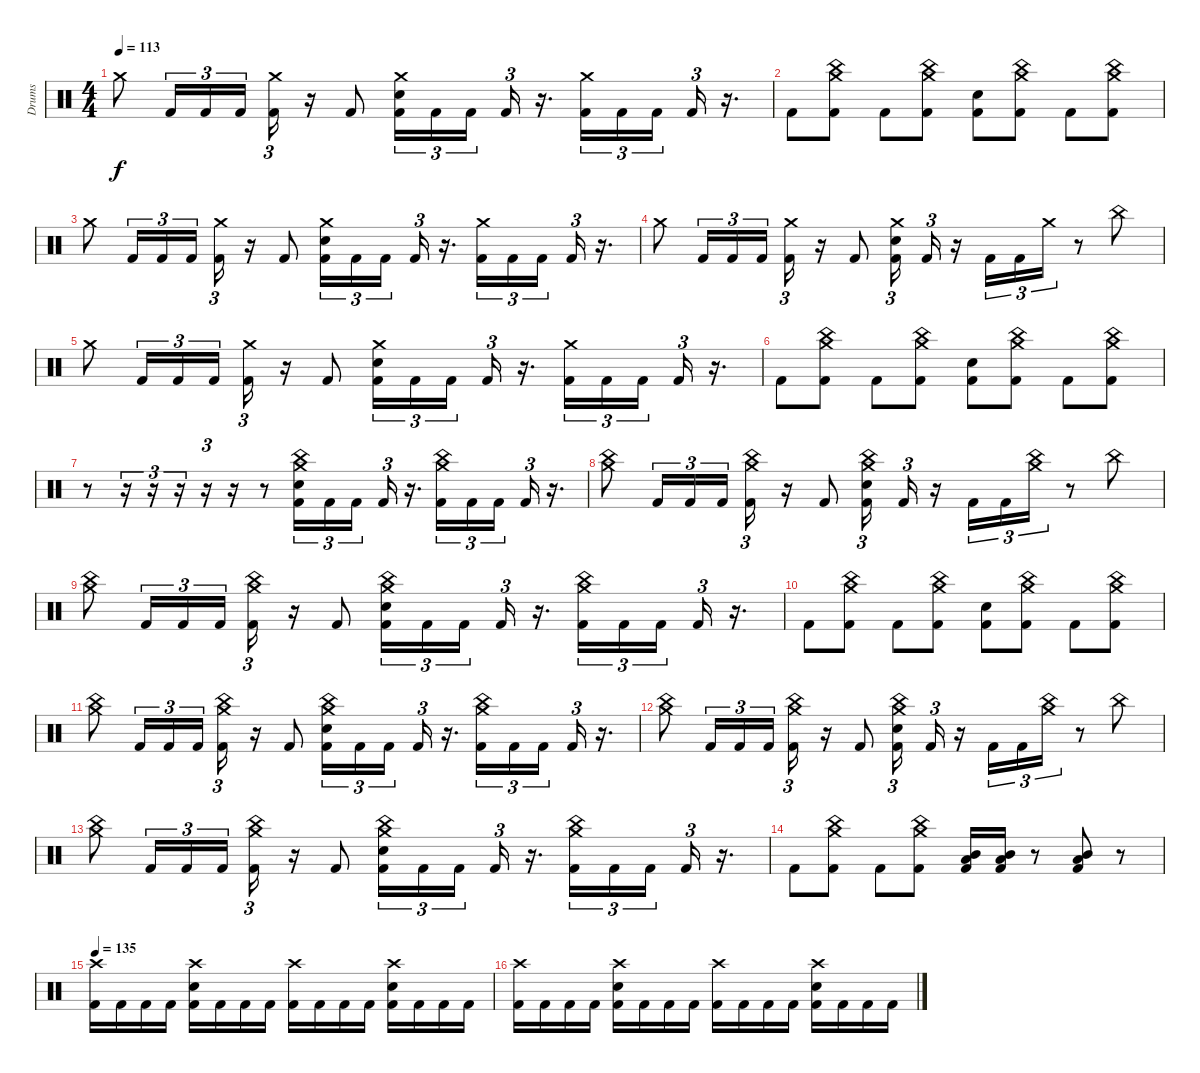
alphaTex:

\track ("Drums" "Drums") {instrument percussion}
\staff {score}
\articulation defaults
\ts (4 4)
\tempo 113
\clef neutral
\ks c "Crash medium (hit)".8{dy f} "Kick (hit) 2".16{tu (3 2)} "Kick (hit) 2".16{tu (3 2)} "Kick (hit) 2".16{tu (3 2)}
("Crash medium (hit)" "Kick (hit) 2").16{tu (3 2)} r.16 "Kick (hit) 2".8 ("Crash medium (hit)" "Snare (hit) 2" "Kick (hit) 2").16{tu (3 2)} "Kick (hit) 2".16{tu (3 2)} "Kick (hit) 2".16{tu (3 2) beam splitsecondary} "Kick (hit) 2".16{tu (3 2)} r.16{d} ("Crash medium (hit)" "Kick (hit) 2").16{tu (3 2)} "Kick (hit) 2".16{tu (3 2)} "Kick (hit) 2".16{tu (3 2) beam splitsecondary} "Kick (hit) 2".16{tu (3 2)} r.16{d} |
"Kick (hit) 2".8 ("China (hit)" "Crash medium (hit)" "Kick (hit) 2").8 "Kick (hit) 2".8 ("China (hit)" "Crash medium (hit)" "Kick (hit) 2").8 ("Snare (hit) 2" "Kick (hit) 2").8 ("China (hit)" "Crash medium (hit)" "Kick (hit) 2").8 "Kick (hit) 2".8 ("China (hit)" "Crash medium (hit)" "Kick (hit) 2").8 |
"Crash medium (hit)".8 "Kick (hit) 2".16{tu (3 2)} "Kick (hit) 2".16{tu (3 2)} "Kick (hit) 2".16{tu (3 2)} ("Crash medium (hit)" "Kick (hit) 2").16{tu (3 2)} r.16 "Kick (hit) 2".8 ("Crash medium (hit)" "Snare (hit) 2" "Kick (hit) 2").16{tu (3 2)} "Kick (hit) 2".16{tu (3 2)} "Kick (hit) 2".16{tu (3 2) beam splitsecondary} "Kick (hit) 2".16{tu (3 2)} r.16{d} ("Crash medium (hit)" "Kick (hit) 2").16{tu (3 2)} "Kick (hit) 2".16{tu (3 2)} "Kick (hit) 2".16{tu (3 2) beam splitsecondary} "Kick (hit) 2".16{tu (3 2)} r.16{d} |
"Crash medium (hit)".8 "Kick (hit) 2".16{tu (3 2)} "Kick (hit) 2".16{tu (3 2)} "Kick (hit) 2".16{tu (3 2)} ("Crash medium (hit)" "Kick (hit) 2").16{tu (3 2)} r.16 "Kick (hit) 2".8 ("Crash medium (hit)" "Snare (hit) 2" "Kick (hit) 2").16{tu (3 2)} "Kick (hit) 2".16{tu (3 2)} r.16 "Kick (hit) 2".16{tu (3 2)} "Kick (hit) 2".16{tu (3 2)} "Crash medium (hit)".16{tu (3 2)} r.8 "China (hit)".8 |
"Crash medium (hit)".8 "Kick (hit) 2".16{tu (3 2)} "Kick (hit) 2".16{tu (3 2)} "Kick (hit) 2".16{tu (3 2)} ("Crash medium (hit)" "Kick (hit) 2").16{tu (3 2)} r.16 "Kick (hit) 2".8 ("Crash medium (hit)" "Snare (hit) 2" "Kick (hit) 2").16{tu (3 2)} "Kick (hit) 2".16{tu (3 2)} "Kick (hit) 2".16{tu (3 2) beam splitsecondary} "Kick (hit) 2".16{tu (3 2)} r.16{d} ("Crash medium (hit)" "Kick (hit) 2").16{tu (3 2)} "Kick (hit) 2".16{tu (3 2)} "Kick (hit) 2".16{tu (3 2) beam splitsecondary} "Kick (hit) 2".16{tu (3 2)} r.16{d} |
"Kick (hit) 2".8 ("China (hit)" "Crash medium (hit)" "Kick (hit) 2").8 "Kick (hit) 2".8 ("China (hit)" "Crash medium (hit)" "Kick (hit) 2").8 ("Snare (hit) 2" "Kick (hit) 2").8 ("China (hit)" "Crash medium (hit)" "Kick (hit) 2").8 "Kick (hit) 2".8 ("China (hit)" "Crash medium (hit)" "Kick (hit) 2").8 |
r.8 r.16{tu (3 2)} r.16{tu (3 2)} r.16{tu (3 2)} r.16{tu (3 2)} r.16 r.8 ("Crash medium (hit)" "China (hit)" "Snare (hit) 2" "Kick (hit) 2").16{tu (3 2)} "Kick (hit) 2".16{tu (3 2)} "Kick (hit) 2".16{tu (3 2) beam splitsecondary} "Kick (hit) 2".16{tu (3 2)} r.16{d} ("Crash medium (hit)" "China (hit)" "Kick (hit) 2").16{tu (3 2)} "Kick (hit) 2".16{tu (3 2)} "Kick (hit) 2".16{tu (3 2) beam splitsecondary} "Kick (hit) 2".16{tu (3 2)} r.16{d} |
("Crash medium (hit)" "China (hit)").8 "Kick (hit) 2".16{tu (3 2)} "Kick (hit) 2".16{tu (3 2)} "Kick (hit) 2".16{tu (3 2)} ("Crash medium (hit)" "China (hit)" "Kick (hit) 2").16{tu (3 2)} r.16 "Kick (hit) 2".8 ("Crash medium (hit)" "China (hit)" "Snare (hit) 2" "Kick (hit) 2").16{tu (3 2)} "Kick (hit) 2".16{tu (3 2)} r.16 "Kick (hit) 2".16{tu (3 2)} "Kick (hit) 2".16{tu (3 2)} ("Crash medium (hit)" "China (hit)").16{tu (3 2)} r.8 "China (hit)".8 |
("Crash medium (hit)" "China (hit)").8 "Kick (hit) 2".16{tu (3 2)} "Kick (hit) 2".16{tu (3 2)} "Kick (hit) 2".16{tu (3 2)} ("Crash medium (hit)" "China (hit)" "Kick (hit) 2").16{tu (3 2)} r.16 "Kick (hit) 2".8 ("Crash medium (hit)" "China (hit)" "Snare (hit) 2" "Kick (hit) 2").16{tu (3 2)} "Kick (hit) 2".16{tu (3 2)} "Kick (hit) 2".16{tu (3 2) beam splitsecondary} "Kick (hit) 2".16{tu (3 2)} r.16{d} ("Crash medium (hit)" "China (hit)" "Kick (hit) 2").16{tu (3 2)} "Kick (hit) 2".16{tu (3 2)} "Kick (hit) 2".16{tu (3 2) beam splitsecondary} "Kick (hit) 2".16{tu (3 2)} r.16{d} |
"Kick (hit) 2".8 ("China (hit)" "Crash medium (hit)" "Kick (hit) 2").8 "Kick (hit) 2".8 ("China (hit)" "Crash medium (hit)" "Kick (hit) 2").8 ("Snare (hit) 2" "Kick (hit) 2").8 ("China (hit)" "Crash medium (hit)" "Kick (hit) 2").8 "Kick (hit) 2".8 ("China (hit)" "Crash medium (hit)" "Kick (hit) 2").8 |
("Crash medium (hit)" "China (hit)").8 "Kick (hit) 2".16{tu (3 2)} "Kick (hit) 2".16{tu (3 2)} "Kick (hit) 2".16{tu (3 2)} ("Crash medium (hit)" "China (hit)" "Kick (hit) 2").16{tu (3 2)} r.16 "Kick (hit) 2".8 ("Crash medium (hit)" "China (hit)" "Snare (hit) 2" "Kick (hit) 2").16{tu (3 2)} "Kick (hit) 2".16{tu (3 2)} "Kick (hit) 2".16{tu (3 2) beam splitsecondary} "Kick (hit) 2".16{tu (3 2)} r.16{d} ("Crash medium (hit)" "China (hit)" "Kick (hit) 2").16{tu (3 2)} "Kick (hit) 2".16{tu (3 2)} "Kick (hit) 2".16{tu (3 2) beam splitsecondary} "Kick (hit) 2".16{tu (3 2)} r.16{d} |
("Crash medium (hit)" "China (hit)").8 "Kick (hit) 2".16{tu (3 2)} "Kick (hit) 2".16{tu (3 2)} "Kick (hit) 2".16{tu (3 2)} ("Crash medium (hit)" "China (hit)" "Kick (hit) 2").16{tu (3 2)} r.16 "Kick (hit) 2".8 ("Crash medium (hit)" "China (hit)" "Snare (hit) 2" "Kick (hit) 2").16{tu (3 2)} "Kick (hit) 2".16{tu (3 2)} r.16 "Kick (hit) 2".16{tu (3 2)} "Kick (hit) 2".16{tu (3 2)} ("Crash medium (hit)" "China (hit)").16{tu (3 2)} r.8 "China (hit)".8 |
("Crash medium (hit)" "China (hit)").8 "Kick (hit) 2".16{tu (3 2)} "Kick (hit) 2".16{tu (3 2)} "Kick (hit) 2".16{tu (3 2)} ("Crash medium (hit)" "China (hit)" "Kick (hit) 2").16{tu (3 2)} r.16 "Kick (hit) 2".8 ("Crash medium (hit)" "China (hit)" "Snare (hit) 2" "Kick (hit) 2").16{tu (3 2)} "Kick (hit) 2".16{tu (3 2)} "Kick (hit) 2".16{tu (3 2) beam splitsecondary} "Kick (hit) 2".16{tu (3 2)} r.16{d} ("Crash medium (hit)" "China (hit)" "Kick (hit) 2").16{tu (3 2)} "Kick (hit) 2".16{tu (3 2)} "Kick (hit) 2".16{tu (3 2) beam splitsecondary} "Kick (hit) 2".16{tu (3 2)} r.16{d} |
"Kick (hit) 2".8 ("China (hit)" "Crash medium (hit)" "Kick (hit) 2").8 "Kick (hit) 2".8 ("China (hit)" "Crash medium (hit)" "Kick (hit) 2").8 ("Mid Tom (hit)" "Low Tom (hit)" "Kick (hit) 2").16 ("Mid Tom (hit)" "Low Tom (hit)" "Kick (hit) 2").16 r.8 ("Mid Tom (hit)" "Low Tom (hit)" "Kick (hit) 2").8 r.8 |
\tempo 135
("Crash high (hit)" "Kick (hit) 2").16 "Kick (hit) 2".16 "Kick (hit) 2".16 "Kick (hit) 2".16 ("Crash high (hit)" "Snare (hit) 2" "Kick (hit) 2").16 "Kick (hit) 2".16 "Kick (hit) 2".16 "Kick (hit) 2".16 ("Crash high (hit)" "Kick (hit) 2").16 "Kick (hit) 2".16 "Kick (hit) 2".16 "Kick (hit) 2".16 ("Crash high (hit)" "Snare (hit) 2" "Kick (hit) 2").16 "Kick (hit) 2".16 "Kick (hit) 2".16 "Kick (hit) 2".16 |
("Crash high (hit)" "Kick (hit) 2").16 "Kick (hit) 2".16 "Kick (hit) 2".16 "Kick (hit) 2".16 ("Crash high (hit)" "Snare (hit) 2" "Kick (hit) 2").16 "Kick (hit) 2".16 "Kick (hit) 2".16 "Kick (hit) 2".16 ("Crash high (hit)" "Kick (hit) 2").16 "Kick (hit) 2".16 "Kick (hit) 2".16 "Kick (hit) 2".16 ("Crash high (hit)" "Snare (hit) 2" "Kick (hit) 2").16 "Kick (hit) 2".16 "Kick (hit) 2".16 "Kick (hit) 2".16
